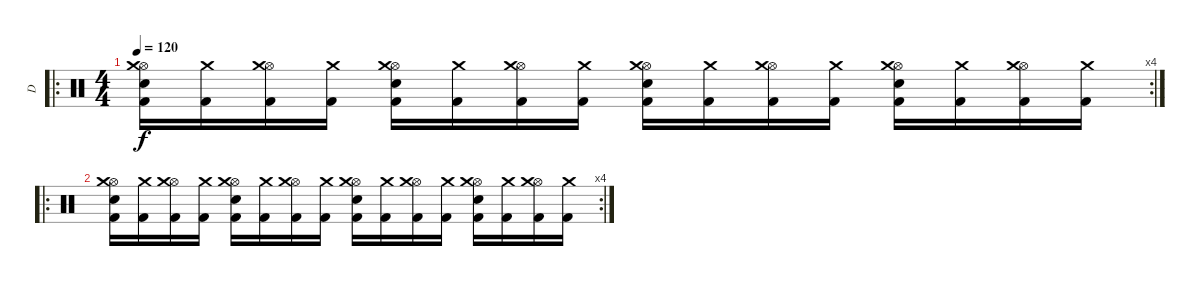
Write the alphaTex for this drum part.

\track ("D" "D") {instrument percussion}
\staff {score}
\articulation defaults
\ro
\rc 4
\ts (4 4)
\tempo 120
\clef neutral
\ks c
("Hi-Hat (open)" "Electric Snare (hit)" "Crash medium (hit)" "Kick (hit) 2").16{dy f} ("Crash medium (hit)" "Kick (hit) 2").16 ("Hi-Hat (open)" "Crash medium (hit)" "Kick (hit) 2").16 ("Crash medium (hit)" "Kick (hit) 2").16 ("Hi-Hat (open)" "Electric Snare (hit)" "Crash medium (hit)" "Kick (hit) 2").16 ("Crash medium (hit)" "Kick (hit) 2").16 ("Hi-Hat (open)" "Crash medium (hit)" "Kick (hit) 2").16 ("Crash medium (hit)" "Kick (hit) 2").16 ("Hi-Hat (open)" "Electric Snare (hit)" "Crash medium (hit)" "Kick (hit) 2").16 ("Crash medium (hit)" "Kick (hit) 2").16 ("Hi-Hat (open)" "Crash medium (hit)" "Kick (hit) 2").16 ("Crash medium (hit)" "Kick (hit) 2").16 ("Hi-Hat (open)" "Electric Snare (hit)" "Crash medium (hit)" "Kick (hit) 2").16 ("Crash medium (hit)" "Kick (hit) 2").16 ("Hi-Hat (open)" "Crash medium (hit)" "Kick (hit) 2").16 ("Crash medium (hit)" "Kick (hit) 2").16 |
\ro
\rc 4
("Hi-Hat (open)" "Electric Snare (hit)" "Crash medium (hit)" "Kick (hit) 2").16 ("Crash medium (hit)" "Kick (hit) 2").16 ("Hi-Hat (open)" "Crash medium (hit)" "Kick (hit) 2").16 ("Crash medium (hit)" "Kick (hit) 2").16 ("Hi-Hat (open)" "Electric Snare (hit)" "Crash medium (hit)" "Kick (hit) 2").16 ("Crash medium (hit)" "Kick (hit) 2").16 ("Hi-Hat (open)" "Crash medium (hit)" "Kick (hit) 2").16 ("Crash medium (hit)" "Kick (hit) 2").16 ("Hi-Hat (open)" "Electric Snare (hit)" "Crash medium (hit)" "Kick (hit) 2").16 ("Crash medium (hit)" "Kick (hit) 2").16 ("Hi-Hat (open)" "Crash medium (hit)" "Kick (hit) 2").16 ("Crash medium (hit)" "Kick (hit) 2").16 ("Hi-Hat (open)" "Electric Snare (hit)" "Crash medium (hit)" "Kick (hit) 2").16 ("Crash medium (hit)" "Kick (hit) 2").16 ("Hi-Hat (open)" "Crash medium (hit)" "Kick (hit) 2").16 ("Crash medium (hit)" "Kick (hit) 2").16
